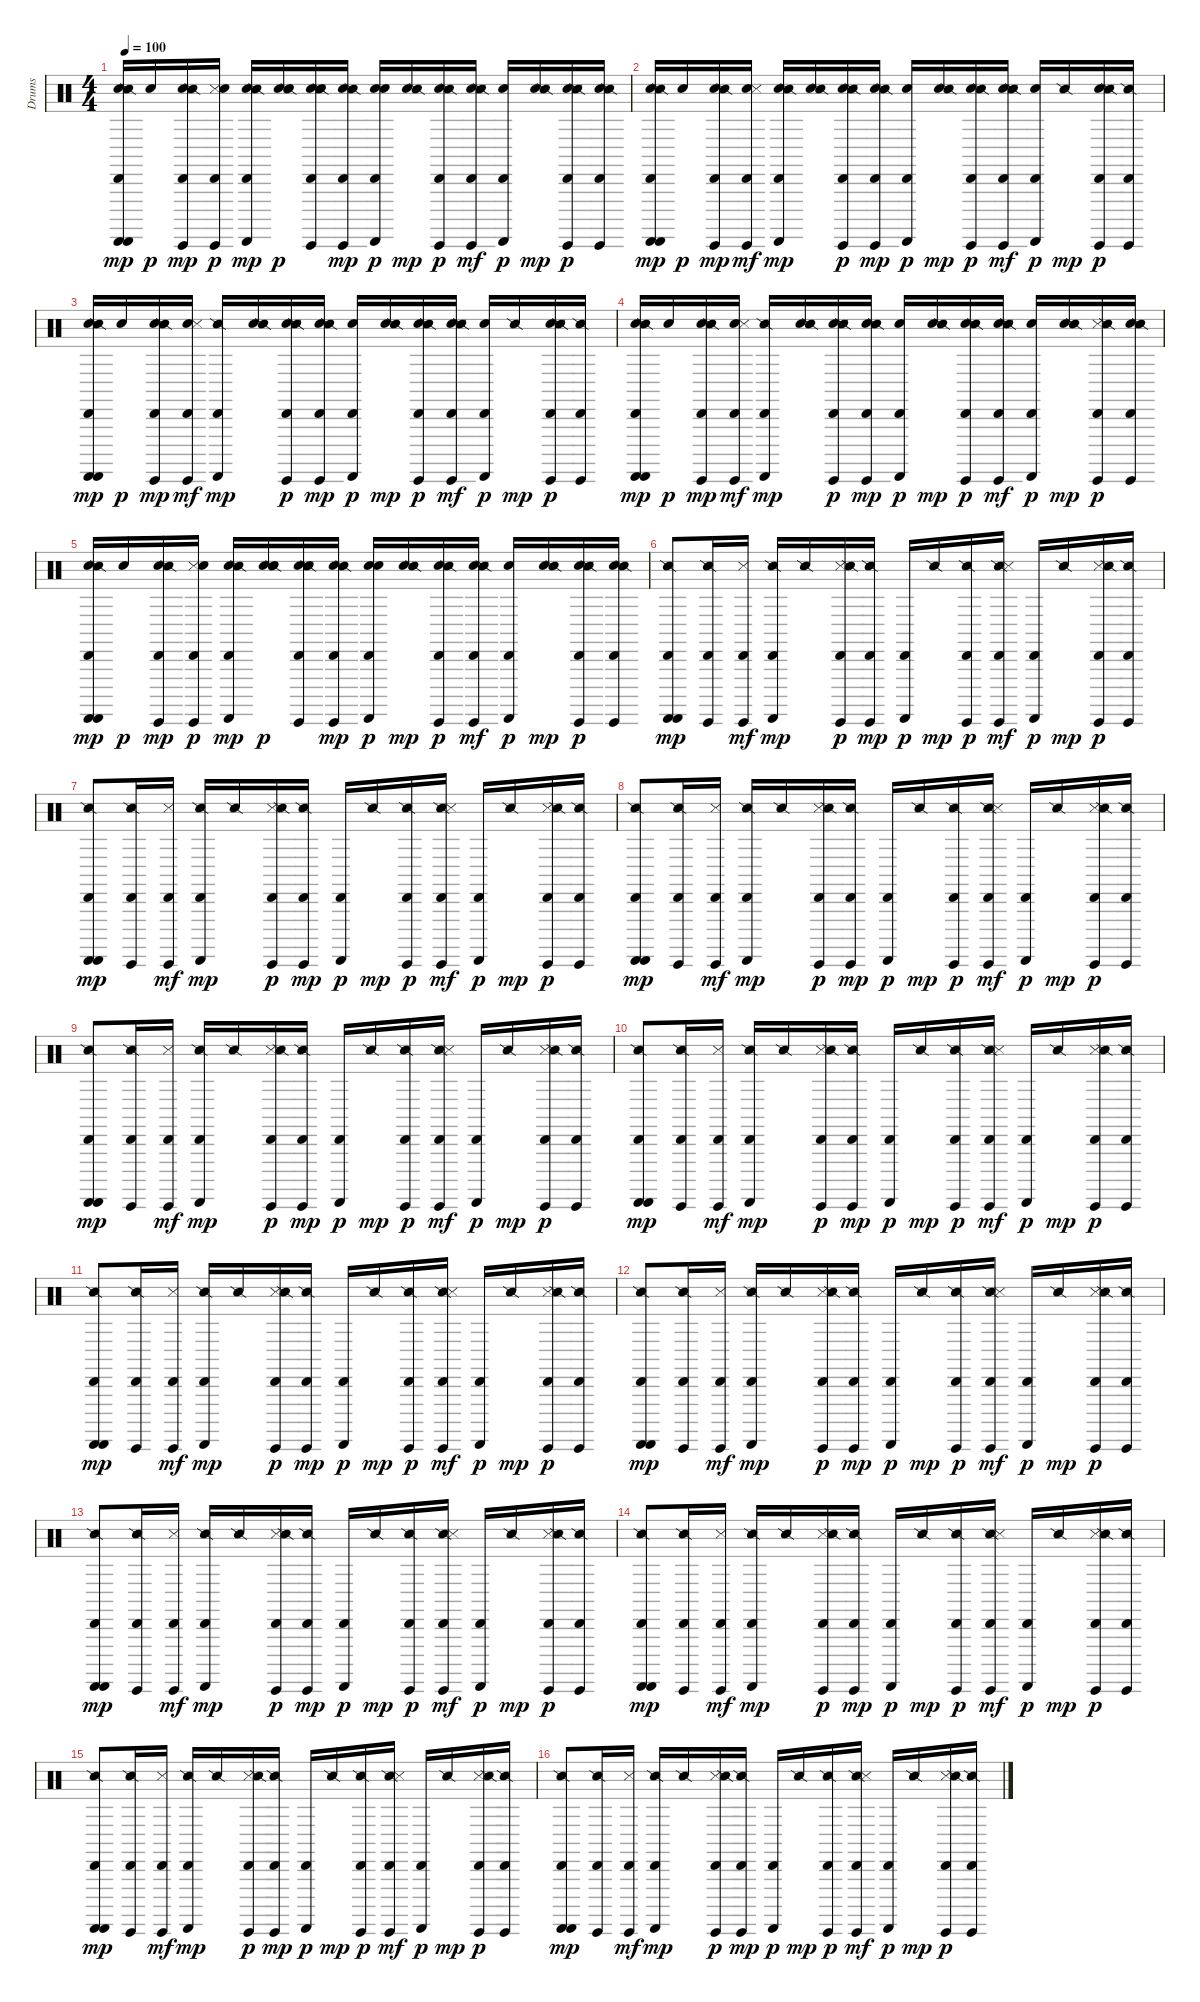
\track ("Drums" "Drums") {instrument percussion}
\staff {score}
\articulation defaults
\ts (4 4)
\tempo 100
\clef neutral
\ks c
("Electric Snare (hit)" "Cabasa (hit)" "Guiro (scrap-return)" "Guiro (scrap-return)" "Snare (side stick) 2").16{dy mp} "Electric Snare (hit)".16{dy p} ("Electric Snare (hit)" "Cabasa (hit)" "Guiro (hit)" "Snare (side stick) 2").16{dy mp} ("Guiro (hit)" "Cabasa (hit)" "Metronome (hit)" "Electric Snare (hit)").16{dy p} ("Electric Snare (hit)" "Cabasa (hit)" "Guiro (scrap-return)" "Snare (side stick) 2").16{dy mp} ("Electric Snare (hit)" "Snare (side stick) 2" "Electric Snare (hit)").16{dy p} ("Electric Snare (hit)" "Electric Snare (hit)" "Metronome (hit)" "Snare (side stick) 2" "Guiro (hit)" "Cabasa (hit)").16 ("Electric Snare (hit)" "Guiro (hit)" "Cabasa (hit)" "Snare (side stick) 2").16{dy mp} ("Electric Snare (hit)" "Cabasa (hit)" "Guiro (scrap-return)" "Electric Snare (hit)").16{dy p} ("Electric Snare (hit)" "Snare (side stick) 2").16{dy mp} ("Electric Snare (hit)" "Snare (side stick) 2" "Guiro (hit)" "Cabasa (hit)").16{dy p} ("Electric Snare (hit)" "Guiro (hit)" "Snare (side stick) 2" "Cabasa (hit)" "Metronome (hit)").16{dy mf} ("Electric Snare (hit)" "Cabasa (hit)" "Guiro (scrap-return)").16{dy p} ("Electric Snare (hit)" "Snare (side stick) 2").16{dy mp} ("Electric Snare (hit)" "Metronome (hit)" "Guiro (hit)" "Snare (side stick) 2" "Cabasa (hit)").16{dy p} ("Electric Snare (hit)" "Guiro (hit)" "Snare (side stick) 2" "Cabasa (hit)").16 |
("Electric Snare (hit)" "Cabasa (hit)" "Guiro (scrap-return)" "Guiro (scrap-return)" "Snare (side stick) 2").16{dy mp} "Electric Snare (hit)".16{dy p} ("Electric Snare (hit)" "Cabasa (hit)" "Guiro (hit)" "Snare (side stick) 2").16{dy mp} ("Electric Snare (hit)" "Guiro (hit)" "Cabasa (hit)" "Metronome (hit)").16{dy mf} ("Electric Snare (hit)" "Cabasa (hit)" "Guiro (scrap-return)" "Snare (side stick) 2").16{dy mp} ("Electric Snare (hit)" "Snare (side stick) 2").16 ("Electric Snare (hit)" "Metronome (hit)" "Snare (side stick) 2" "Guiro (hit)" "Cabasa (hit)").16{dy p} ("Electric Snare (hit)" "Guiro (hit)" "Cabasa (hit)" "Snare (side stick) 2").16{dy mp} ("Electric Snare (hit)" "Cabasa (hit)" "Guiro (scrap-return)").16{dy p} ("Electric Snare (hit)" "Snare (side stick) 2").16{dy mp} ("Electric Snare (hit)" "Snare (side stick) 2" "Guiro (hit)" "Cabasa (hit)").16{dy p} ("Electric Snare (hit)" "Guiro (hit)" "Snare (side stick) 2" "Cabasa (hit)" "Metronome (hit)").16{dy mf} ("Electric Snare (hit)" "Cabasa (hit)" "Guiro (scrap-return)").16{dy p} "Snare (side stick) 2".16{dy mp} ("Electric Snare (hit)" "Metronome (hit)" "Guiro (hit)" "Snare (side stick) 2" "Cabasa (hit)").16{dy p} ("Guiro (hit)" "Snare (side stick) 2" "Cabasa (hit)").16 |
("Electric Snare (hit)" "Cabasa (hit)" "Guiro (scrap-return)" "Guiro (scrap-return)" "Snare (side stick) 2").16{dy mp} "Electric Snare (hit)".16{dy p} ("Electric Snare (hit)" "Cabasa (hit)" "Guiro (hit)" "Snare (side stick) 2").16{dy mp} ("Electric Snare (hit)" "Guiro (hit)" "Cabasa (hit)" "Metronome (hit)").16{dy mf} ("Cabasa (hit)" "Guiro (scrap-return)" "Snare (side stick) 2").16{dy mp} ("Electric Snare (hit)" "Snare (side stick) 2").16 ("Electric Snare (hit)" "Metronome (hit)" "Snare (side stick) 2" "Guiro (hit)" "Cabasa (hit)").16{dy p} ("Electric Snare (hit)" "Guiro (hit)" "Cabasa (hit)" "Snare (side stick) 2").16{dy mp} ("Electric Snare (hit)" "Cabasa (hit)" "Guiro (scrap-return)").16{dy p} ("Electric Snare (hit)" "Snare (side stick) 2").16{dy mp} ("Electric Snare (hit)" "Snare (side stick) 2" "Guiro (hit)" "Cabasa (hit)").16{dy p} ("Electric Snare (hit)" "Guiro (hit)" "Snare (side stick) 2" "Cabasa (hit)" "Metronome (hit)").16{dy mf} ("Electric Snare (hit)" "Cabasa (hit)" "Guiro (scrap-return)").16{dy p} "Snare (side stick) 2".16{dy mp} ("Electric Snare (hit)" "Metronome (hit)" "Guiro (hit)" "Snare (side stick) 2" "Cabasa (hit)").16{dy p} ("Guiro (hit)" "Snare (side stick) 2" "Cabasa (hit)").16 |
("Electric Snare (hit)" "Cabasa (hit)" "Guiro (scrap-return)" "Guiro (scrap-return)" "Snare (side stick) 2").16{dy mp} "Electric Snare (hit)".16{dy p} ("Electric Snare (hit)" "Cabasa (hit)" "Guiro (hit)" "Snare (side stick) 2").16{dy mp} ("Electric Snare (hit)" "Guiro (hit)" "Cabasa (hit)" "Metronome (hit)").16{dy mf} ("Cabasa (hit)" "Guiro (scrap-return)" "Snare (side stick) 2").16{dy mp} ("Electric Snare (hit)" "Snare (side stick) 2").16 ("Electric Snare (hit)" "Metronome (hit)" "Snare (side stick) 2" "Guiro (hit)" "Cabasa (hit)").16{dy p} ("Electric Snare (hit)" "Guiro (hit)" "Cabasa (hit)" "Snare (side stick) 2").16{dy mp} ("Electric Snare (hit)" "Cabasa (hit)" "Guiro (scrap-return)").16{dy p} ("Electric Snare (hit)" "Snare (side stick) 2").16{dy mp} ("Electric Snare (hit)" "Snare (side stick) 2" "Guiro (hit)" "Cabasa (hit)").16{dy p} ("Electric Snare (hit)" "Guiro (hit)" "Snare (side stick) 2" "Cabasa (hit)" "Metronome (hit)").16{dy mf} ("Electric Snare (hit)" "Cabasa (hit)" "Guiro (scrap-return)").16{dy p} ("Electric Snare (hit)" "Snare (side stick) 2").16{dy mp} ("Metronome (hit)" "Guiro (hit)" "Snare (side stick) 2" "Cabasa (hit)").16{dy p} ("Electric Snare (hit)" "Guiro (hit)" "Snare (side stick) 2" "Cabasa (hit)").16 |
("Electric Snare (hit)" "Cabasa (hit)" "Guiro (scrap-return)" "Guiro (scrap-return)" "Snare (side stick) 2").16{dy mp} "Electric Snare (hit)".16{dy p} ("Electric Snare (hit)" "Cabasa (hit)" "Guiro (hit)" "Snare (side stick) 2").16{dy mp} ("Guiro (hit)" "Cabasa (hit)" "Metronome (hit)" "Electric Snare (hit)").16{dy p} ("Electric Snare (hit)" "Cabasa (hit)" "Guiro (scrap-return)" "Snare (side stick) 2").16{dy mp} ("Electric Snare (hit)" "Snare (side stick) 2" "Electric Snare (hit)").16{dy p} ("Electric Snare (hit)" "Electric Snare (hit)" "Metronome (hit)" "Snare (side stick) 2" "Guiro (hit)" "Cabasa (hit)").16 ("Electric Snare (hit)" "Guiro (hit)" "Cabasa (hit)" "Snare (side stick) 2").16{dy mp} ("Electric Snare (hit)" "Cabasa (hit)" "Guiro (scrap-return)" "Electric Snare (hit)").16{dy p} ("Electric Snare (hit)" "Snare (side stick) 2").16{dy mp} ("Electric Snare (hit)" "Snare (side stick) 2" "Guiro (hit)" "Cabasa (hit)").16{dy p} ("Electric Snare (hit)" "Guiro (hit)" "Snare (side stick) 2" "Cabasa (hit)" "Metronome (hit)").16{dy mf} ("Electric Snare (hit)" "Cabasa (hit)" "Guiro (scrap-return)").16{dy p} ("Electric Snare (hit)" "Snare (side stick) 2").16{dy mp} ("Electric Snare (hit)" "Metronome (hit)" "Guiro (hit)" "Snare (side stick) 2" "Cabasa (hit)").16{dy p} ("Electric Snare (hit)" "Guiro (hit)" "Snare (side stick) 2" "Cabasa (hit)").16 |
("Cabasa (hit)" "Guiro (scrap-return)" "Guiro (scrap-return)" "Snare (side stick) 2").8{dy mp} ("Cabasa (hit)" "Guiro (hit)" "Snare (side stick) 2").16 ("Guiro (hit)" "Cabasa (hit)" "Metronome (hit)").16{dy mf} ("Cabasa (hit)" "Guiro (scrap-return)" "Snare (side stick) 2").16{dy mp} "Snare (side stick) 2".16 ("Metronome (hit)" "Snare (side stick) 2" "Guiro (hit)" "Cabasa (hit)").16{dy p} ("Guiro (hit)" "Cabasa (hit)" "Snare (side stick) 2").16{dy mp} ("Cabasa (hit)" "Guiro (scrap-return)").16{dy p} "Snare (side stick) 2".16{dy mp} ("Snare (side stick) 2" "Guiro (hit)" "Cabasa (hit)").16{dy p} ("Guiro (hit)" "Snare (side stick) 2" "Cabasa (hit)" "Metronome (hit)").16{dy mf} ("Cabasa (hit)" "Guiro (scrap-return)").16{dy p} "Snare (side stick) 2".16{dy mp} ("Metronome (hit)" "Guiro (hit)" "Snare (side stick) 2" "Cabasa (hit)").16{dy p} ("Guiro (hit)" "Snare (side stick) 2" "Cabasa (hit)").16 |
("Cabasa (hit)" "Guiro (scrap-return)" "Guiro (scrap-return)" "Snare (side stick) 2").8{dy mp} ("Cabasa (hit)" "Guiro (hit)" "Snare (side stick) 2").16 ("Guiro (hit)" "Cabasa (hit)" "Metronome (hit)").16{dy mf} ("Cabasa (hit)" "Guiro (scrap-return)" "Snare (side stick) 2").16{dy mp} "Snare (side stick) 2".16 ("Metronome (hit)" "Snare (side stick) 2" "Guiro (hit)" "Cabasa (hit)").16{dy p} ("Guiro (hit)" "Cabasa (hit)" "Snare (side stick) 2").16{dy mp} ("Cabasa (hit)" "Guiro (scrap-return)").16{dy p} "Snare (side stick) 2".16{dy mp} ("Snare (side stick) 2" "Guiro (hit)" "Cabasa (hit)").16{dy p} ("Guiro (hit)" "Snare (side stick) 2" "Cabasa (hit)" "Metronome (hit)").16{dy mf} ("Cabasa (hit)" "Guiro (scrap-return)").16{dy p} "Snare (side stick) 2".16{dy mp} ("Metronome (hit)" "Guiro (hit)" "Snare (side stick) 2" "Cabasa (hit)").16{dy p} ("Guiro (hit)" "Snare (side stick) 2" "Cabasa (hit)").16 |
("Cabasa (hit)" "Guiro (scrap-return)" "Guiro (scrap-return)" "Snare (side stick) 2").8{dy mp} ("Cabasa (hit)" "Guiro (hit)" "Snare (side stick) 2").16 ("Guiro (hit)" "Cabasa (hit)" "Metronome (hit)").16{dy mf} ("Cabasa (hit)" "Guiro (scrap-return)" "Snare (side stick) 2").16{dy mp} "Snare (side stick) 2".16 ("Metronome (hit)" "Snare (side stick) 2" "Guiro (hit)" "Cabasa (hit)").16{dy p} ("Guiro (hit)" "Cabasa (hit)" "Snare (side stick) 2").16{dy mp} ("Cabasa (hit)" "Guiro (scrap-return)").16{dy p} "Snare (side stick) 2".16{dy mp} ("Snare (side stick) 2" "Guiro (hit)" "Cabasa (hit)").16{dy p} ("Guiro (hit)" "Snare (side stick) 2" "Cabasa (hit)" "Metronome (hit)").16{dy mf} ("Cabasa (hit)" "Guiro (scrap-return)").16{dy p} "Snare (side stick) 2".16{dy mp} ("Metronome (hit)" "Guiro (hit)" "Snare (side stick) 2" "Cabasa (hit)").16{dy p} ("Guiro (hit)" "Snare (side stick) 2" "Cabasa (hit)").16 |
("Cabasa (hit)" "Guiro (scrap-return)" "Guiro (scrap-return)" "Snare (side stick) 2").8{dy mp} ("Cabasa (hit)" "Guiro (hit)" "Snare (side stick) 2").16 ("Guiro (hit)" "Cabasa (hit)" "Metronome (hit)").16{dy mf} ("Cabasa (hit)" "Guiro (scrap-return)" "Snare (side stick) 2").16{dy mp} "Snare (side stick) 2".16 ("Metronome (hit)" "Snare (side stick) 2" "Guiro (hit)" "Cabasa (hit)").16{dy p} ("Guiro (hit)" "Cabasa (hit)" "Snare (side stick) 2").16{dy mp} ("Cabasa (hit)" "Guiro (scrap-return)").16{dy p} "Snare (side stick) 2".16{dy mp} ("Snare (side stick) 2" "Guiro (hit)" "Cabasa (hit)").16{dy p} ("Guiro (hit)" "Snare (side stick) 2" "Cabasa (hit)" "Metronome (hit)").16{dy mf} ("Cabasa (hit)" "Guiro (scrap-return)").16{dy p} "Snare (side stick) 2".16{dy mp} ("Metronome (hit)" "Guiro (hit)" "Snare (side stick) 2" "Cabasa (hit)").16{dy p} ("Guiro (hit)" "Snare (side stick) 2" "Cabasa (hit)").16 |
("Cabasa (hit)" "Guiro (scrap-return)" "Guiro (scrap-return)" "Snare (side stick) 2").8{dy mp} ("Cabasa (hit)" "Guiro (hit)" "Snare (side stick) 2").16 ("Guiro (hit)" "Cabasa (hit)" "Metronome (hit)").16{dy mf} ("Cabasa (hit)" "Guiro (scrap-return)" "Snare (side stick) 2").16{dy mp} "Snare (side stick) 2".16 ("Metronome (hit)" "Snare (side stick) 2" "Guiro (hit)" "Cabasa (hit)").16{dy p} ("Guiro (hit)" "Cabasa (hit)" "Snare (side stick) 2").16{dy mp} ("Cabasa (hit)" "Guiro (scrap-return)").16{dy p} "Snare (side stick) 2".16{dy mp} ("Snare (side stick) 2" "Guiro (hit)" "Cabasa (hit)").16{dy p} ("Guiro (hit)" "Snare (side stick) 2" "Cabasa (hit)" "Metronome (hit)").16{dy mf} ("Cabasa (hit)" "Guiro (scrap-return)").16{dy p} "Snare (side stick) 2".16{dy mp} ("Metronome (hit)" "Guiro (hit)" "Snare (side stick) 2" "Cabasa (hit)").16{dy p} ("Guiro (hit)" "Snare (side stick) 2" "Cabasa (hit)").16 |
("Cabasa (hit)" "Guiro (scrap-return)" "Guiro (scrap-return)" "Snare (side stick) 2").8{dy mp} ("Cabasa (hit)" "Guiro (hit)" "Snare (side stick) 2").16 ("Guiro (hit)" "Cabasa (hit)" "Metronome (hit)").16{dy mf} ("Cabasa (hit)" "Guiro (scrap-return)" "Snare (side stick) 2").16{dy mp} "Snare (side stick) 2".16 ("Metronome (hit)" "Snare (side stick) 2" "Guiro (hit)" "Cabasa (hit)").16{dy p} ("Guiro (hit)" "Cabasa (hit)" "Snare (side stick) 2").16{dy mp} ("Cabasa (hit)" "Guiro (scrap-return)").16{dy p} "Snare (side stick) 2".16{dy mp} ("Snare (side stick) 2" "Guiro (hit)" "Cabasa (hit)").16{dy p} ("Guiro (hit)" "Snare (side stick) 2" "Cabasa (hit)" "Metronome (hit)").16{dy mf} ("Cabasa (hit)" "Guiro (scrap-return)").16{dy p} "Snare (side stick) 2".16{dy mp} ("Metronome (hit)" "Guiro (hit)" "Snare (side stick) 2" "Cabasa (hit)").16{dy p} ("Guiro (hit)" "Snare (side stick) 2" "Cabasa (hit)").16 |
("Cabasa (hit)" "Guiro (scrap-return)" "Guiro (scrap-return)" "Snare (side stick) 2").8{dy mp} ("Cabasa (hit)" "Guiro (hit)" "Snare (side stick) 2").16 ("Guiro (hit)" "Cabasa (hit)" "Metronome (hit)").16{dy mf} ("Cabasa (hit)" "Guiro (scrap-return)" "Snare (side stick) 2").16{dy mp} "Snare (side stick) 2".16 ("Metronome (hit)" "Snare (side stick) 2" "Guiro (hit)" "Cabasa (hit)").16{dy p} ("Guiro (hit)" "Cabasa (hit)" "Snare (side stick) 2").16{dy mp} ("Cabasa (hit)" "Guiro (scrap-return)").16{dy p} "Snare (side stick) 2".16{dy mp} ("Snare (side stick) 2" "Guiro (hit)" "Cabasa (hit)").16{dy p} ("Guiro (hit)" "Snare (side stick) 2" "Cabasa (hit)" "Metronome (hit)").16{dy mf} ("Cabasa (hit)" "Guiro (scrap-return)").16{dy p} "Snare (side stick) 2".16{dy mp} ("Metronome (hit)" "Guiro (hit)" "Snare (side stick) 2" "Cabasa (hit)").16{dy p} ("Guiro (hit)" "Snare (side stick) 2" "Cabasa (hit)").16 |
("Cabasa (hit)" "Guiro (scrap-return)" "Guiro (scrap-return)" "Snare (side stick) 2").8{dy mp} ("Cabasa (hit)" "Guiro (hit)" "Snare (side stick) 2").16 ("Guiro (hit)" "Cabasa (hit)" "Metronome (hit)").16{dy mf} ("Cabasa (hit)" "Guiro (scrap-return)" "Snare (side stick) 2").16{dy mp} "Snare (side stick) 2".16 ("Metronome (hit)" "Snare (side stick) 2" "Guiro (hit)" "Cabasa (hit)").16{dy p} ("Guiro (hit)" "Cabasa (hit)" "Snare (side stick) 2").16{dy mp} ("Cabasa (hit)" "Guiro (scrap-return)").16{dy p} "Snare (side stick) 2".16{dy mp} ("Snare (side stick) 2" "Guiro (hit)" "Cabasa (hit)").16{dy p} ("Guiro (hit)" "Snare (side stick) 2" "Cabasa (hit)" "Metronome (hit)").16{dy mf} ("Cabasa (hit)" "Guiro (scrap-return)").16{dy p} "Snare (side stick) 2".16{dy mp} ("Metronome (hit)" "Guiro (hit)" "Snare (side stick) 2" "Cabasa (hit)").16{dy p} ("Guiro (hit)" "Snare (side stick) 2" "Cabasa (hit)").16 |
("Cabasa (hit)" "Guiro (scrap-return)" "Guiro (scrap-return)" "Snare (side stick) 2").8{dy mp} ("Cabasa (hit)" "Guiro (hit)" "Snare (side stick) 2").16 ("Guiro (hit)" "Cabasa (hit)" "Metronome (hit)").16{dy mf} ("Cabasa (hit)" "Guiro (scrap-return)" "Snare (side stick) 2").16{dy mp} "Snare (side stick) 2".16 ("Metronome (hit)" "Snare (side stick) 2" "Guiro (hit)" "Cabasa (hit)").16{dy p} ("Guiro (hit)" "Cabasa (hit)" "Snare (side stick) 2").16{dy mp} ("Cabasa (hit)" "Guiro (scrap-return)").16{dy p} "Snare (side stick) 2".16{dy mp} ("Snare (side stick) 2" "Guiro (hit)" "Cabasa (hit)").16{dy p} ("Guiro (hit)" "Snare (side stick) 2" "Cabasa (hit)" "Metronome (hit)").16{dy mf} ("Cabasa (hit)" "Guiro (scrap-return)").16{dy p} "Snare (side stick) 2".16{dy mp} ("Metronome (hit)" "Guiro (hit)" "Snare (side stick) 2" "Cabasa (hit)").16{dy p} ("Guiro (hit)" "Snare (side stick) 2" "Cabasa (hit)").16 |
("Cabasa (hit)" "Guiro (scrap-return)" "Guiro (scrap-return)" "Snare (side stick) 2").8{dy mp} ("Cabasa (hit)" "Guiro (hit)" "Snare (side stick) 2").16 ("Guiro (hit)" "Cabasa (hit)" "Metronome (hit)").16{dy mf} ("Cabasa (hit)" "Guiro (scrap-return)" "Snare (side stick) 2").16{dy mp} "Snare (side stick) 2".16 ("Metronome (hit)" "Snare (side stick) 2" "Guiro (hit)" "Cabasa (hit)").16{dy p} ("Guiro (hit)" "Cabasa (hit)" "Snare (side stick) 2").16{dy mp} ("Cabasa (hit)" "Guiro (scrap-return)").16{dy p} "Snare (side stick) 2".16{dy mp} ("Snare (side stick) 2" "Guiro (hit)" "Cabasa (hit)").16{dy p} ("Guiro (hit)" "Snare (side stick) 2" "Cabasa (hit)" "Metronome (hit)").16{dy mf} ("Cabasa (hit)" "Guiro (scrap-return)").16{dy p} "Snare (side stick) 2".16{dy mp} ("Metronome (hit)" "Guiro (hit)" "Snare (side stick) 2" "Cabasa (hit)").16{dy p} ("Guiro (hit)" "Snare (side stick) 2" "Cabasa (hit)").16 |
("Cabasa (hit)" "Guiro (scrap-return)" "Guiro (scrap-return)" "Snare (side stick) 2").8{dy mp} ("Cabasa (hit)" "Guiro (hit)" "Snare (side stick) 2").16 ("Guiro (hit)" "Cabasa (hit)" "Metronome (hit)").16{dy mf} ("Cabasa (hit)" "Guiro (scrap-return)" "Snare (side stick) 2").16{dy mp} "Snare (side stick) 2".16 ("Metronome (hit)" "Snare (side stick) 2" "Guiro (hit)" "Cabasa (hit)").16{dy p} ("Guiro (hit)" "Cabasa (hit)" "Snare (side stick) 2").16{dy mp} ("Cabasa (hit)" "Guiro (scrap-return)").16{dy p} "Snare (side stick) 2".16{dy mp} ("Snare (side stick) 2" "Guiro (hit)" "Cabasa (hit)").16{dy p} ("Guiro (hit)" "Snare (side stick) 2" "Cabasa (hit)" "Metronome (hit)").16{dy mf} ("Cabasa (hit)" "Guiro (scrap-return)").16{dy p} "Snare (side stick) 2".16{dy mp} ("Metronome (hit)" "Guiro (hit)" "Snare (side stick) 2" "Cabasa (hit)").16{dy p} ("Guiro (hit)" "Snare (side stick) 2" "Cabasa (hit)").16
